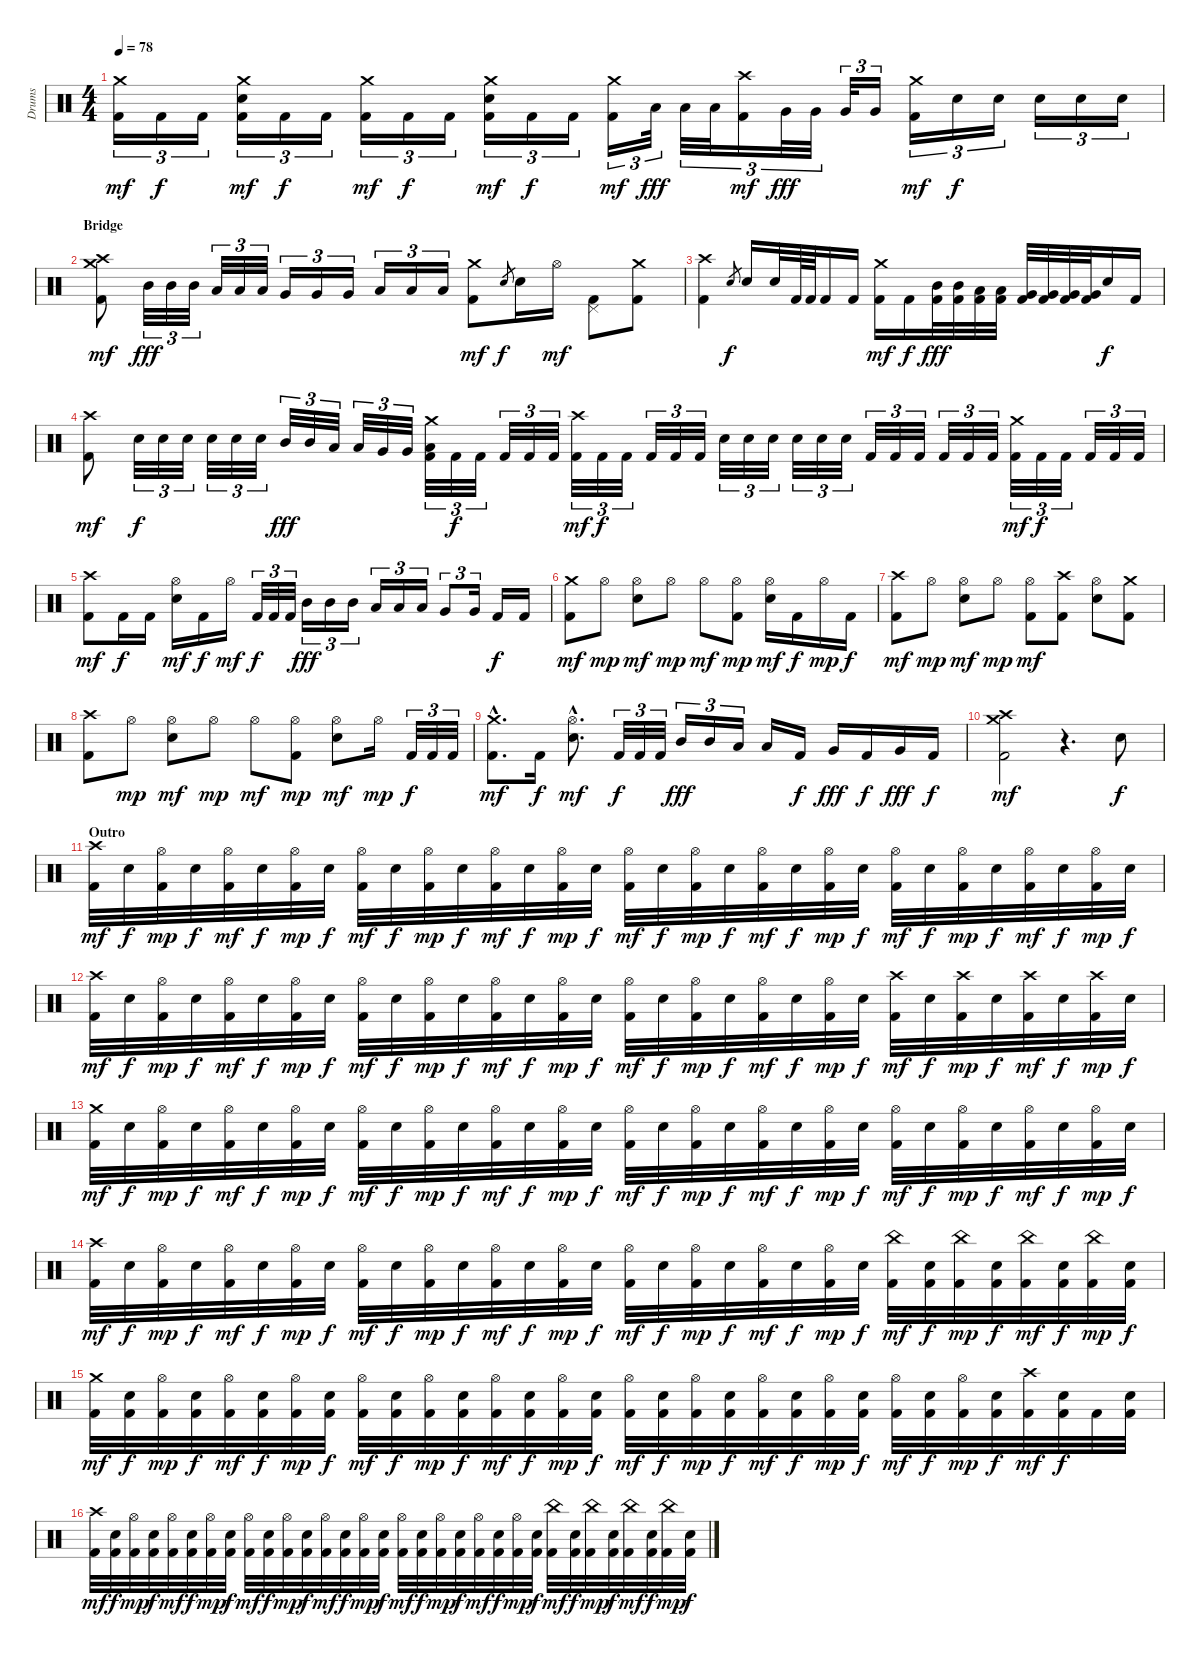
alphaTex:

\track ("Drums" "Drums") {instrument percussion}
\staff {score}
\articulation defaults
\ts (4 4)
\tempo 78
\clef neutral
\ks c
("Crash medium (hit)" "Kick (hit) 2").16{tu (3 2) dy mf} "Kick (hit) 2".16{tu (3 2) dy f} "Kick (hit) 2".16{tu (3 2)} ("Crash medium (hit)" "Electric Snare (hit)" "Kick (hit) 2").16{tu (3 2) dy mf} "Kick (hit) 2".16{tu (3 2) dy f} "Kick (hit) 2".16{tu (3 2)} ("Crash medium (hit)" "Kick (hit) 2").16{tu (3 2) dy mf} "Kick (hit) 2".16{tu (3 2) dy f} "Kick (hit) 2".16{tu (3 2)} ("Crash medium (hit)" "Electric Snare (hit)" "Kick (hit) 2").16{tu (3 2) dy mf} "Kick (hit) 2".16{tu (3 2) dy f} "Kick (hit) 2".16{tu (3 2)} ("Crash medium (hit)" "Kick (hit) 2").16{tu (3 2) dy mf} "Low Tom (hit)".32{tu (3 2) dy fff} "Low Tom (hit)".32{tu (3 2)} "Low Tom (hit)".32{tu (3 2)} ("Crash high (hit)" "Kick (hit) 2").16{tu (3 2) dy mf} "Very Low Tom (hit)".32{tu (3 2) dy fff} "Very Low Tom (hit)".32{tu (3 2)} "Very Low Tom (hit)".32{tu (3 2)} "Very Low Tom (hit)".16{tu (3 2)} ("Crash medium (hit)" "Kick (hit) 2").16{tu (3 2) dy mf} "Electric Snare (hit)".16{tu (3 2) dy f} "Electric Snare (hit)".16{tu (3 2)} "Electric Snare (hit)".16{tu (3 2)} "Electric Snare (hit)".16{tu (3 2)} "Electric Snare (hit)".16{tu (3 2)} |
\section ("" "Bridge")
("Crash medium (hit)" "Crash high (hit)" "Kick (hit) 2").8{dy mf} "Mid Tom (hit)".32{tu (3 2) dy fff} "Mid Tom (hit)".32{tu (3 2)} "Mid Tom (hit)".32{tu (3 2)} "Low Tom (hit)".32{tu (3 2)} "Low Tom (hit)".32{tu (3 2)} "Low Tom (hit)".32{tu (3 2)} "Very Low Tom (hit)".16{tu (3 2)} "Very Low Tom (hit)".16{tu (3 2)} "Very Low Tom (hit)".16{tu (3 2)} "Low Floor Tom (hit)".16{tu (3 2)} "Low Floor Tom (hit)".16{tu (3 2)} "Low Floor Tom (hit)".16{tu (3 2)} ("Crash medium (hit)" "Kick (hit) 2").8{dy mf} "Electric Snare (hit)".8{gr dy f} "Electric Snare (hit)".16 "Hi-Hat (open)".16{dy mf} ("Pedal Hi-Hat (hit)" "Kick (hit) 2").8 ("Crash medium (hit)" "Kick (hit) 2").8 |
("Crash high (hit)" "Kick (hit) 2").4 "Electric Snare (hit)".8{gr dy f} "Electric Snare (hit)".16 "Electric Snare (hit)".32 "Kick (hit) 2".64 "Kick (hit) 2".64 "Kick (hit) 2".16 "Kick (hit) 2".16 ("Crash medium (hit)" "Kick (hit) 2").16{dy mf} "Kick (hit) 2".16{dy f} ("Mid Tom (hit)" "Kick (hit) 2").32{dy fff} ("Mid Tom (hit)" "Kick (hit) 2").32 ("Low Tom (hit)" "Kick (hit) 2").32 ("Low Tom (hit)" "Kick (hit) 2").32 ("Very Low Tom (hit)" "Kick (hit) 2").32 ("Very Low Tom (hit)" "Kick (hit) 2").32 ("Very Low Tom (hit)" "Kick (hit) 2").32 ("Very Low Tom (hit)" "Kick (hit) 2").32 "Electric Snare (hit)".16{dy f} "Kick (hit) 2".16 |
("Crash high (hit)" "Kick (hit) 2").8{dy mf} "Electric Snare (hit)".32{tu (3 2) dy f} "Electric Snare (hit)".32{tu (3 2)} "Electric Snare (hit)".32{tu (3 2)} "Electric Snare (hit)".32{tu (3 2)} "Electric Snare (hit)".32{tu (3 2)} "Electric Snare (hit)".32{tu (3 2)} "Mid Tom (hit)".32{tu (3 2) dy fff} "Mid Tom (hit)".32{tu (3 2)} "Low Tom (hit)".32{tu (3 2)} "Low Tom (hit)".32{tu (3 2)} "Very Low Tom (hit)".32{tu (3 2)} "Very Low Tom (hit)".32{tu (3 2)} ("Crash medium (hit)" "Low Floor Tom (hit)" "Kick (hit) 2").32{tu (3 2)} "Kick (hit) 2".32{tu (3 2) dy f} "Kick (hit) 2".32{tu (3 2)} "Kick (hit) 2".32{tu (3 2)} "Kick (hit) 2".32{tu (3 2)} "Kick (hit) 2".32{tu (3 2)} ("Crash high (hit)" "Kick (hit) 2").32{tu (3 2) dy mf} "Kick (hit) 2".32{tu (3 2) dy f} "Kick (hit) 2".32{tu (3 2)} "Kick (hit) 2".32{tu (3 2)} "Kick (hit) 2".32{tu (3 2)} "Kick (hit) 2".32{tu (3 2)} "Electric Snare (hit)".32{tu (3 2)} "Electric Snare (hit)".32{tu (3 2)} "Electric Snare (hit)".32{tu (3 2)} "Electric Snare (hit)".32{tu (3 2)} "Electric Snare (hit)".32{tu (3 2)} "Electric Snare (hit)".32{tu (3 2)} "Kick (hit) 2".32{tu (3 2)} "Kick (hit) 2".32{tu (3 2)} "Kick (hit) 2".32{tu (3 2)} "Kick (hit) 2".32{tu (3 2)} "Kick (hit) 2".32{tu (3 2)} "Kick (hit) 2".32{tu (3 2)} ("Crash medium (hit)" "Kick (hit) 2").32{tu (3 2) dy mf} "Kick (hit) 2".32{tu (3 2) dy f} "Kick (hit) 2".32{tu (3 2)} "Kick (hit) 2".32{tu (3 2)} "Kick (hit) 2".32{tu (3 2)} "Kick (hit) 2".32{tu (3 2)} |
("Crash high (hit)" "Kick (hit) 2").8{dy mf} "Kick (hit) 2".16{dy f} "Kick (hit) 2".16 ("Hi-Hat (open)" "Electric Snare (hit)").16{dy mf} "Kick (hit) 2".16{dy f} "Hi-Hat (open)".16{dy mf} "Kick (hit) 2".32{tu (3 2) dy f} "Kick (hit) 2".32{tu (3 2)} "Kick (hit) 2".32{tu (3 2)} "Mid Tom (hit)".16{tu (3 2) dy fff} "Mid Tom (hit)".16{tu (3 2)} "Mid Tom (hit)".16{tu (3 2)} "Low Tom (hit)".16{tu (3 2)} "Low Tom (hit)".16{tu (3 2)} "Low Tom (hit)".16{tu (3 2)} "Very Low Tom (hit)".8{tu (3 2)} "Very Low Tom (hit)".16{tu (3 2)} "Kick (hit) 2".16{dy f} "Kick (hit) 2".16 |
("Crash medium (hit)" "Kick (hit) 2").8{dy mf} "Hi-Hat (open)".8{dy mp} ("Hi-Hat (open)" "Electric Snare (hit)").8{dy mf} "Hi-Hat (open)".8{dy mp} "Hi-Hat (open)".8{dy mf} ("Hi-Hat (open)" "Kick (hit) 2").8{dy mp} ("Hi-Hat (open)" "Electric Snare (hit)").16{dy mf} "Kick (hit) 2".16{dy f} "Hi-Hat (open)".16{dy mp} "Kick (hit) 2".16{dy f} |
("Crash high (hit)" "Kick (hit) 2").8{dy mf} "Hi-Hat (open)".8{dy mp} ("Hi-Hat (open)" "Electric Snare (hit)").8{dy mf} "Hi-Hat (open)".8{dy mp} ("Hi-Hat (open)" "Kick (hit) 2").8{dy mf} ("Crash high (hit)" "Kick (hit) 2").8 ("Hi-Hat (open)" "Electric Snare (hit)").8 ("Crash medium (hit)" "Kick (hit) 2").8 |
("Crash high (hit)" "Kick (hit) 2").8 "Hi-Hat (open)".8{dy mp} ("Hi-Hat (open)" "Electric Snare (hit)").8{dy mf} "Hi-Hat (open)".8{dy mp} "Hi-Hat (open)".8{dy mf} ("Hi-Hat (open)" "Kick (hit) 2").8{dy mp} ("Hi-Hat (open)" "Electric Snare (hit)").8{dy mf} "Hi-Hat (open)".16{dy mp} "Kick (hit) 2".32{tu (3 2) dy f} "Kick (hit) 2".32{tu (3 2)} "Kick (hit) 2".32{tu (3 2)} |
("Crash medium (hit)"{hac} "Kick (hit) 2"{hac}).8{d dy mf} "Kick (hit) 2".16{dy f} ("Hi-Hat (open)"{hac} "Electric Snare (hit)"{hac}).8{d dy mf} "Kick (hit) 2".32{tu (3 2) dy f} "Kick (hit) 2".32{tu (3 2)} "Kick (hit) 2".32{tu (3 2)} "Mid Tom (hit)".16{tu (3 2) dy fff} "Mid Tom (hit)".16{tu (3 2)} "Low Tom (hit)".16{tu (3 2)} "Low Tom (hit)".16 "Kick (hit) 2".16{dy f} "Very Low Tom (hit)".16{dy fff} "Kick (hit) 2".16{dy f} "Very Low Tom (hit)".16{dy fff} "Kick (hit) 2".16{dy f} |
("Crash medium (hit)" "Crash high (hit)" "Kick (hit) 2").2{dy mf} r.4{d} "Electric Snare (hit)".8{dy f} |
\section ("" "Outro")
("Crash high (hit)" "Kick (hit) 2").32{dy mf} "Electric Snare (hit)".32{dy f} ("Hi-Hat (open)" "Kick (hit) 2").32{dy mp} "Electric Snare (hit)".32{dy f} ("Hi-Hat (open)" "Kick (hit) 2").32{dy mf} "Electric Snare (hit)".32{dy f} ("Hi-Hat (open)" "Kick (hit) 2").32{dy mp} "Electric Snare (hit)".32{dy f} ("Hi-Hat (open)" "Kick (hit) 2").32{dy mf} "Electric Snare (hit)".32{dy f} ("Hi-Hat (open)" "Kick (hit) 2").32{dy mp} "Electric Snare (hit)".32{dy f} ("Hi-Hat (open)" "Kick (hit) 2").32{dy mf} "Electric Snare (hit)".32{dy f} ("Hi-Hat (open)" "Kick (hit) 2").32{dy mp} "Electric Snare (hit)".32{dy f} ("Hi-Hat (open)" "Kick (hit) 2").32{dy mf} "Electric Snare (hit)".32{dy f} ("Hi-Hat (open)" "Kick (hit) 2").32{dy mp} "Electric Snare (hit)".32{dy f} ("Hi-Hat (open)" "Kick (hit) 2").32{dy mf} "Electric Snare (hit)".32{dy f} ("Hi-Hat (open)" "Kick (hit) 2").32{dy mp} "Electric Snare (hit)".32{dy f} ("Hi-Hat (open)" "Kick (hit) 2").32{dy mf} "Electric Snare (hit)".32{dy f} ("Hi-Hat (open)" "Kick (hit) 2").32{dy mp} "Electric Snare (hit)".32{dy f} ("Hi-Hat (open)" "Kick (hit) 2").32{dy mf} "Electric Snare (hit)".32{dy f} ("Hi-Hat (open)" "Kick (hit) 2").32{dy mp} "Electric Snare (hit)".32{dy f} |
("Crash high (hit)" "Kick (hit) 2").32{dy mf} "Electric Snare (hit)".32{dy f} ("Hi-Hat (open)" "Kick (hit) 2").32{dy mp} "Electric Snare (hit)".32{dy f} ("Hi-Hat (open)" "Kick (hit) 2").32{dy mf} "Electric Snare (hit)".32{dy f} ("Hi-Hat (open)" "Kick (hit) 2").32{dy mp} "Electric Snare (hit)".32{dy f} ("Hi-Hat (open)" "Kick (hit) 2").32{dy mf} "Electric Snare (hit)".32{dy f} ("Hi-Hat (open)" "Kick (hit) 2").32{dy mp} "Electric Snare (hit)".32{dy f} ("Hi-Hat (open)" "Kick (hit) 2").32{dy mf} "Electric Snare (hit)".32{dy f} ("Hi-Hat (open)" "Kick (hit) 2").32{dy mp} "Electric Snare (hit)".32{dy f} ("Hi-Hat (open)" "Kick (hit) 2").32{dy mf} "Electric Snare (hit)".32{dy f} ("Hi-Hat (open)" "Kick (hit) 2").32{dy mp} "Electric Snare (hit)".32{dy f} ("Hi-Hat (open)" "Kick (hit) 2").32{dy mf} "Electric Snare (hit)".32{dy f} ("Hi-Hat (open)" "Kick (hit) 2").32{dy mp} "Electric Snare (hit)".32{dy f} ("Crash high (hit)" "Kick (hit) 2").32{dy mf} "Electric Snare (hit)".32{dy f} ("Crash high (hit)" "Kick (hit) 2").32{dy mp} "Electric Snare (hit)".32{dy f} ("Crash high (hit)" "Kick (hit) 2").32{dy mf} "Electric Snare (hit)".32{dy f} ("Crash high (hit)" "Kick (hit) 2").32{dy mp} "Electric Snare (hit)".32{dy f} |
("Crash medium (hit)" "Kick (hit) 2").32{dy mf} "Electric Snare (hit)".32{dy f} ("Hi-Hat (open)" "Kick (hit) 2").32{dy mp} "Electric Snare (hit)".32{dy f} ("Hi-Hat (open)" "Kick (hit) 2").32{dy mf} "Electric Snare (hit)".32{dy f} ("Hi-Hat (open)" "Kick (hit) 2").32{dy mp} "Electric Snare (hit)".32{dy f} ("Hi-Hat (open)" "Kick (hit) 2").32{dy mf} "Electric Snare (hit)".32{dy f} ("Hi-Hat (open)" "Kick (hit) 2").32{dy mp} "Electric Snare (hit)".32{dy f} ("Hi-Hat (open)" "Kick (hit) 2").32{dy mf} "Electric Snare (hit)".32{dy f} ("Hi-Hat (open)" "Kick (hit) 2").32{dy mp} "Electric Snare (hit)".32{dy f} ("Hi-Hat (open)" "Kick (hit) 2").32{dy mf} "Electric Snare (hit)".32{dy f} ("Hi-Hat (open)" "Kick (hit) 2").32{dy mp} "Electric Snare (hit)".32{dy f} ("Hi-Hat (open)" "Kick (hit) 2").32{dy mf} "Electric Snare (hit)".32{dy f} ("Hi-Hat (open)" "Kick (hit) 2").32{dy mp} "Electric Snare (hit)".32{dy f} ("Hi-Hat (open)" "Kick (hit) 2").32{dy mf} "Electric Snare (hit)".32{dy f} ("Hi-Hat (open)" "Kick (hit) 2").32{dy mp} "Electric Snare (hit)".32{dy f} ("Hi-Hat (open)" "Kick (hit) 2").32{dy mf} "Electric Snare (hit)".32{dy f} ("Hi-Hat (open)" "Kick (hit) 2").32{dy mp} "Electric Snare (hit)".32{dy f} |
("Crash high (hit)" "Kick (hit) 2").32{dy mf} "Electric Snare (hit)".32{dy f} ("Hi-Hat (open)" "Kick (hit) 2").32{dy mp} "Electric Snare (hit)".32{dy f} ("Hi-Hat (open)" "Kick (hit) 2").32{dy mf} "Electric Snare (hit)".32{dy f} ("Hi-Hat (open)" "Kick (hit) 2").32{dy mp} "Electric Snare (hit)".32{dy f} ("Hi-Hat (open)" "Kick (hit) 2").32{dy mf} "Electric Snare (hit)".32{dy f} ("Hi-Hat (open)" "Kick (hit) 2").32{dy mp} "Electric Snare (hit)".32{dy f} ("Hi-Hat (open)" "Kick (hit) 2").32{dy mf} "Electric Snare (hit)".32{dy f} ("Hi-Hat (open)" "Kick (hit) 2").32{dy mp} "Electric Snare (hit)".32{dy f} ("Hi-Hat (open)" "Kick (hit) 2").32{dy mf} "Electric Snare (hit)".32{dy f} ("Hi-Hat (open)" "Kick (hit) 2").32{dy mp} "Electric Snare (hit)".32{dy f} ("Hi-Hat (open)" "Kick (hit) 2").32{dy mf} "Electric Snare (hit)".32{dy f} ("Hi-Hat (open)" "Kick (hit) 2").32{dy mp} "Electric Snare (hit)".32{dy f} ("China (hit)" "Kick (hit) 2").32{dy mf} ("Electric Snare (hit)" "Kick (hit) 2").32{dy f} ("China (hit)" "Kick (hit) 2").32{dy mp} ("Electric Snare (hit)" "Kick (hit) 2").32{dy f} ("China (hit)" "Kick (hit) 2").32{dy mf} ("Electric Snare (hit)" "Kick (hit) 2").32{dy f} ("China (hit)" "Kick (hit) 2").32{dy mp} ("Electric Snare (hit)" "Kick (hit) 2").32{dy f} |
("Crash medium (hit)" "Kick (hit) 2").32{dy mf} ("Electric Snare (hit)" "Kick (hit) 2").32{dy f} ("Hi-Hat (open)" "Kick (hit) 2").32{dy mp} ("Electric Snare (hit)" "Kick (hit) 2").32{dy f} ("Hi-Hat (open)" "Kick (hit) 2").32{dy mf} ("Electric Snare (hit)" "Kick (hit) 2").32{dy f} ("Hi-Hat (open)" "Kick (hit) 2").32{dy mp} ("Electric Snare (hit)" "Kick (hit) 2").32{dy f} ("Hi-Hat (open)" "Kick (hit) 2").32{dy mf} ("Electric Snare (hit)" "Kick (hit) 2").32{dy f} ("Hi-Hat (open)" "Kick (hit) 2").32{dy mp} ("Electric Snare (hit)" "Kick (hit) 2").32{dy f} ("Hi-Hat (open)" "Kick (hit) 2").32{dy mf} ("Electric Snare (hit)" "Kick (hit) 2").32{dy f} ("Hi-Hat (open)" "Kick (hit) 2").32{dy mp} ("Electric Snare (hit)" "Kick (hit) 2").32{dy f} ("Hi-Hat (open)" "Kick (hit) 2").32{dy mf} ("Electric Snare (hit)" "Kick (hit) 2").32{dy f} ("Hi-Hat (open)" "Kick (hit) 2").32{dy mp} ("Electric Snare (hit)" "Kick (hit) 2").32{dy f} ("Hi-Hat (open)" "Kick (hit) 2").32{dy mf} ("Electric Snare (hit)" "Kick (hit) 2").32{dy f} ("Hi-Hat (open)" "Kick (hit) 2").32{dy mp} ("Electric Snare (hit)" "Kick (hit) 2").32{dy f} ("Hi-Hat (open)" "Kick (hit) 2").32{dy mf} ("Electric Snare (hit)" "Kick (hit) 2").32{dy f} ("Hi-Hat (open)" "Kick (hit) 2").32{dy mp} ("Electric Snare (hit)" "Kick (hit) 2").32{dy f} ("Crash high (hit)" "Kick (hit) 2").32{dy mf} ("Electric Snare (hit)" "Kick (hit) 2").32{dy f} "Kick (hit) 2".32 ("Electric Snare (hit)" "Kick (hit) 2").32 |
("Crash high (hit)" "Kick (hit) 2").32{dy mf} ("Electric Snare (hit)" "Kick (hit) 2").32{dy f} ("Hi-Hat (open)" "Kick (hit) 2").32{dy mp} ("Electric Snare (hit)" "Kick (hit) 2").32{dy f} ("Hi-Hat (open)" "Kick (hit) 2").32{dy mf} ("Electric Snare (hit)" "Kick (hit) 2").32{dy f} ("Hi-Hat (open)" "Kick (hit) 2").32{dy mp} ("Electric Snare (hit)" "Kick (hit) 2").32{dy f} ("Hi-Hat (open)" "Kick (hit) 2").32{dy mf} ("Electric Snare (hit)" "Kick (hit) 2").32{dy f} ("Hi-Hat (open)" "Kick (hit) 2").32{dy mp} ("Electric Snare (hit)" "Kick (hit) 2").32{dy f} ("Hi-Hat (open)" "Kick (hit) 2").32{dy mf} ("Electric Snare (hit)" "Kick (hit) 2").32{dy f} ("Hi-Hat (open)" "Kick (hit) 2").32{dy mp} ("Electric Snare (hit)" "Kick (hit) 2").32{dy f} ("Hi-Hat (open)" "Kick (hit) 2").32{dy mf} ("Electric Snare (hit)" "Kick (hit) 2").32{dy f} ("Hi-Hat (open)" "Kick (hit) 2").32{dy mp} ("Electric Snare (hit)" "Kick (hit) 2").32{dy f} ("Hi-Hat (open)" "Kick (hit) 2").32{dy mf} ("Electric Snare (hit)" "Kick (hit) 2").32{dy f} ("Hi-Hat (open)" "Kick (hit) 2").32{dy mp} ("Electric Snare (hit)" "Kick (hit) 2").32{dy f} ("China (hit)" "Kick (hit) 2").32{dy mf} ("Electric Snare (hit)" "Kick (hit) 2").32{dy f} ("China (hit)" "Kick (hit) 2").32{dy mp} ("Electric Snare (hit)" "Kick (hit) 2").32{dy f} ("China (hit)" "Kick (hit) 2").32{dy mf} ("Electric Snare (hit)" "Kick (hit) 2").32{dy f} ("China (hit)" "Kick (hit) 2").32{dy mp} ("Electric Snare (hit)" "Kick (hit) 2").32{dy f}
